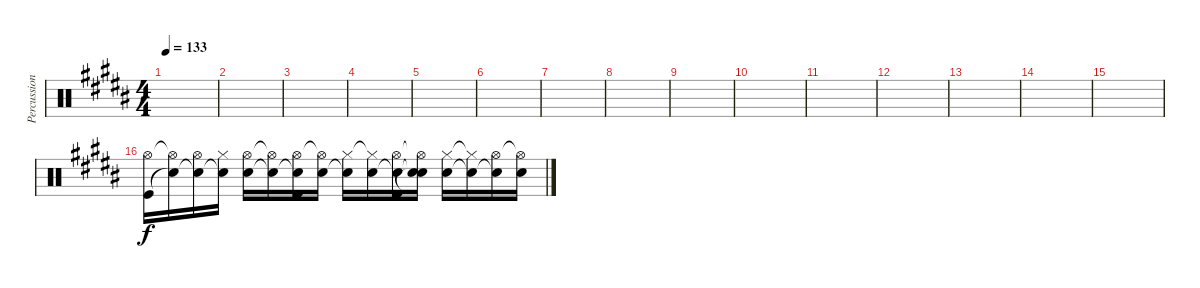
\track ("Percussion" "Percussion") {instrument percussion}
\staff {score}
\articulation defaults
\ts (4 4)
\tempo 133
\clef neutral
\ks b
|
|
|
|
|
|
|
|
|
|
|
|
|
|
|
("Hi-Hat (open)" "Kick (hit)").16 ("Hi-Hat (open)"{t} "Snare (hit)"{t}).16 ("Hi-Hat (open)" "Snare (hit)"{t}).16 ("Hi-Hat (closed)" "Snare (hit)"{t}).16 ("Hi-Hat (open)" "Electric Snare (hit)").16 ("Hi-Hat (open)"{t} "Snare (hit)"{t}).16 ("Hi-Hat (open)" "Snare (hit)"{t} "Kick (hit)").16 ("Hi-Hat (open)"{t} "Electric Snare (hit)").16 ("Hi-Hat (closed)" "Snare (hit)"{t}).16 ("Hi-Hat (closed)"{t} "Electric Snare (hit)").16 ("Hi-Hat (open)" "Electric Snare (hit)"{t} "Kick (hit)").16 ("Hi-Hat (open)"{t} "Snare (hit)"{t} "Snare (hit)"{t}).16 ("Hi-Hat (closed)" "Electric Snare (hit)").16 ("Hi-Hat (closed)"{t} "Snare (hit)"{t}).16 ("Hi-Hat (open)" "Snare (hit)"{t}).16 ("Hi-Hat (open)"{t} "Electric Snare (hit)").16
